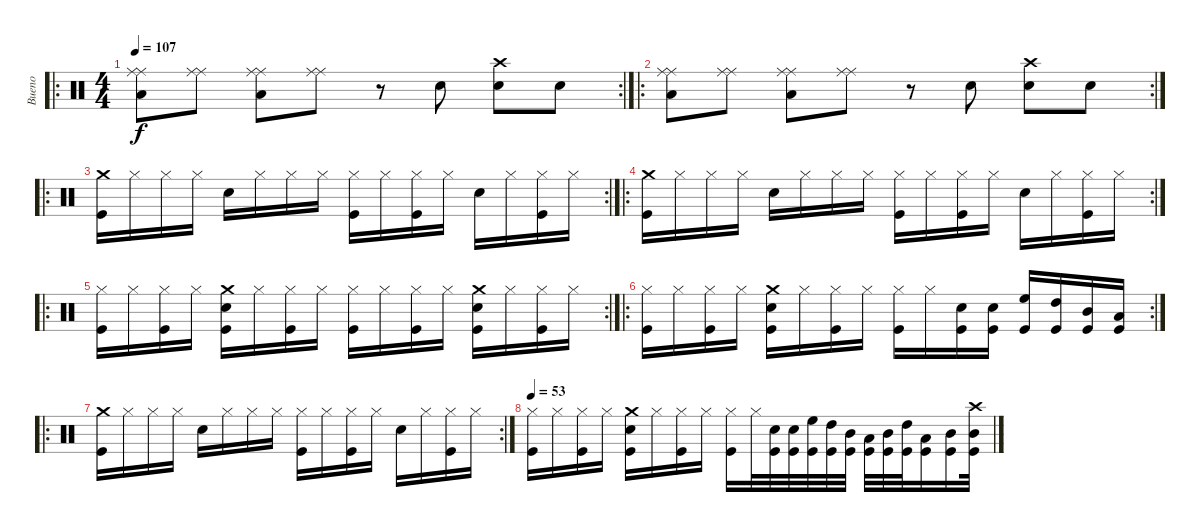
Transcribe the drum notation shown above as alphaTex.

\track ("Bueno" "Bueno") {instrument percussion}
\staff {score}
\articulation defaults
\ro
\rc 2
\ts (4 4)
\tempo 107
\clef neutral
\ks c
("Low Tom (hit)" "Ride (middle)" "Ride (middle)").8{dy f} ("Ride (middle)" "Ride (middle)").8 ("Low Tom (hit)" "Ride (middle)" "Ride (middle)").8 ("Ride (middle)" "Ride (middle)").8 r.8 "Electric Snare (hit)".8 ("Electric Snare (hit)" "Crash high (hit)").8 "Electric Snare (hit)".8 |
\ro
\rc 2
("Low Tom (hit)" "Ride (middle)" "Ride (middle)").8 ("Ride (middle)" "Ride (middle)").8 ("Low Tom (hit)" "Ride (middle)" "Ride (middle)").8 ("Ride (middle)" "Ride (middle)").8 r.8 "Electric Snare (hit)".8 ("Electric Snare (hit)" "Crash high (hit)").8 "Electric Snare (hit)".8 |
\ro
\rc 2
("Kick (hit)" "Crash medium (hit)").16 "Hi-Hat (closed)".16 "Hi-Hat (closed)".16 "Hi-Hat (closed)".16 "Snare (hit) 2".16 "Hi-Hat (closed)".16 "Hi-Hat (closed)".16 "Hi-Hat (closed)".16 ("Kick (hit)" "Hi-Hat (closed)").16 "Hi-Hat (closed)".16 ("Kick (hit)" "Hi-Hat (closed)").16 "Hi-Hat (closed)".16 "Snare (hit) 2".16 "Hi-Hat (closed)".16 ("Kick (hit)" "Hi-Hat (closed)").16 "Hi-Hat (closed)".16 |
\ro
\rc 2
("Kick (hit)" "Crash medium (hit)").16 "Hi-Hat (closed)".16 "Hi-Hat (closed)".16 "Hi-Hat (closed)".16 "Snare (hit) 2".16 "Hi-Hat (closed)".16 "Hi-Hat (closed)".16 "Hi-Hat (closed)".16 ("Kick (hit)" "Hi-Hat (closed)").16 "Hi-Hat (closed)".16 ("Kick (hit)" "Hi-Hat (closed)").16 "Hi-Hat (closed)".16 "Snare (hit) 2".16 "Hi-Hat (closed)".16 ("Kick (hit)" "Hi-Hat (closed)").16 "Hi-Hat (closed)".16 |
\ro
\rc 2
("Kick (hit)" "Hi-Hat (closed)").16 "Hi-Hat (closed)".16 ("Kick (hit)" "Hi-Hat (closed)").16 "Hi-Hat (closed)".16 ("Kick (hit)" "Snare (hit) 2" "Crash medium (hit)").16 "Hi-Hat (closed)".16 ("Kick (hit)" "Hi-Hat (closed)").16 "Hi-Hat (closed)".16 ("Kick (hit)" "Hi-Hat (closed)").16 "Hi-Hat (closed)".16 ("Kick (hit)" "Hi-Hat (closed)").16 "Hi-Hat (closed)".16 ("Kick (hit)" "Snare (hit) 2" "Crash medium (hit)").16 "Hi-Hat (closed)".16 ("Kick (hit)" "Hi-Hat (closed)").16 "Hi-Hat (closed)".16 |
\ro
\rc 2
("Kick (hit)" "Hi-Hat (closed)").16 "Hi-Hat (closed)".16 ("Kick (hit)" "Hi-Hat (closed)").16 "Hi-Hat (closed)".16 ("Kick (hit)" "Snare (hit) 2" "Crash medium (hit)").16 "Hi-Hat (closed)".16 ("Kick (hit)" "Hi-Hat (closed)").16 "Hi-Hat (closed)".16 ("Kick (hit)" "Hi-Hat (closed)").16 "Hi-Hat (closed)".16 ("Snare (hit) 2" "Kick (hit)").16 ("Snare (hit) 2" "Kick (hit)").16 ("High Floor Tom (hit)" "Kick (hit)").16 ("High Tom (hit)" "Kick (hit)").16 ("Mid Tom (hit)" "Kick (hit)").16 ("Low Tom (hit)" "Kick (hit)").16 |
\ro
\rc 2
("Kick (hit)" "Crash medium (hit)").16 "Hi-Hat (closed)".16 "Hi-Hat (closed)".16 "Hi-Hat (closed)".16 "Snare (hit) 2".16 "Hi-Hat (closed)".16 "Hi-Hat (closed)".16 "Hi-Hat (closed)".16 ("Kick (hit)" "Hi-Hat (closed)").16 "Hi-Hat (closed)".16 ("Kick (hit)" "Hi-Hat (closed)").16 "Hi-Hat (closed)".16 "Snare (hit) 2".16 "Hi-Hat (closed)".16 ("Kick (hit)" "Hi-Hat (closed)").16 "Hi-Hat (closed)".16 |
\tempo 50
\tempo 53
("Kick (hit)" "Hi-Hat (closed)").16 "Hi-Hat (closed)".16 ("Kick (hit)" "Hi-Hat (closed)").16 "Hi-Hat (closed)".16 ("Kick (hit)" "Snare (hit) 2" "Crash medium (hit)").16 "Hi-Hat (closed)".16 ("Kick (hit)" "Hi-Hat (closed)").16 "Hi-Hat (closed)".16 ("Kick (hit)" "Hi-Hat (closed)").16 "Hi-Hat (closed)".32 ("Snare (hit) 2" "Kick (hit)").32 ("Snare (hit) 2" "Kick (hit)").32 ("High Floor Tom (hit)" "Kick (hit)").32 ("High Tom (hit)" "Kick (hit)").32 ("Mid Tom (hit)" "Kick (hit)").32 ("Low Tom (hit)" "Kick (hit)").32 ("Mid Tom (hit)" "Kick (hit)").32 ("High Tom (hit)" "Kick (hit)").32 ("Low Tom (hit)" "Kick (hit)").16 ("Mid Tom (hit)" "Kick (hit)").16 ("Mid Tom (hit)" "Kick (hit)" "Crash high (hit)").32
